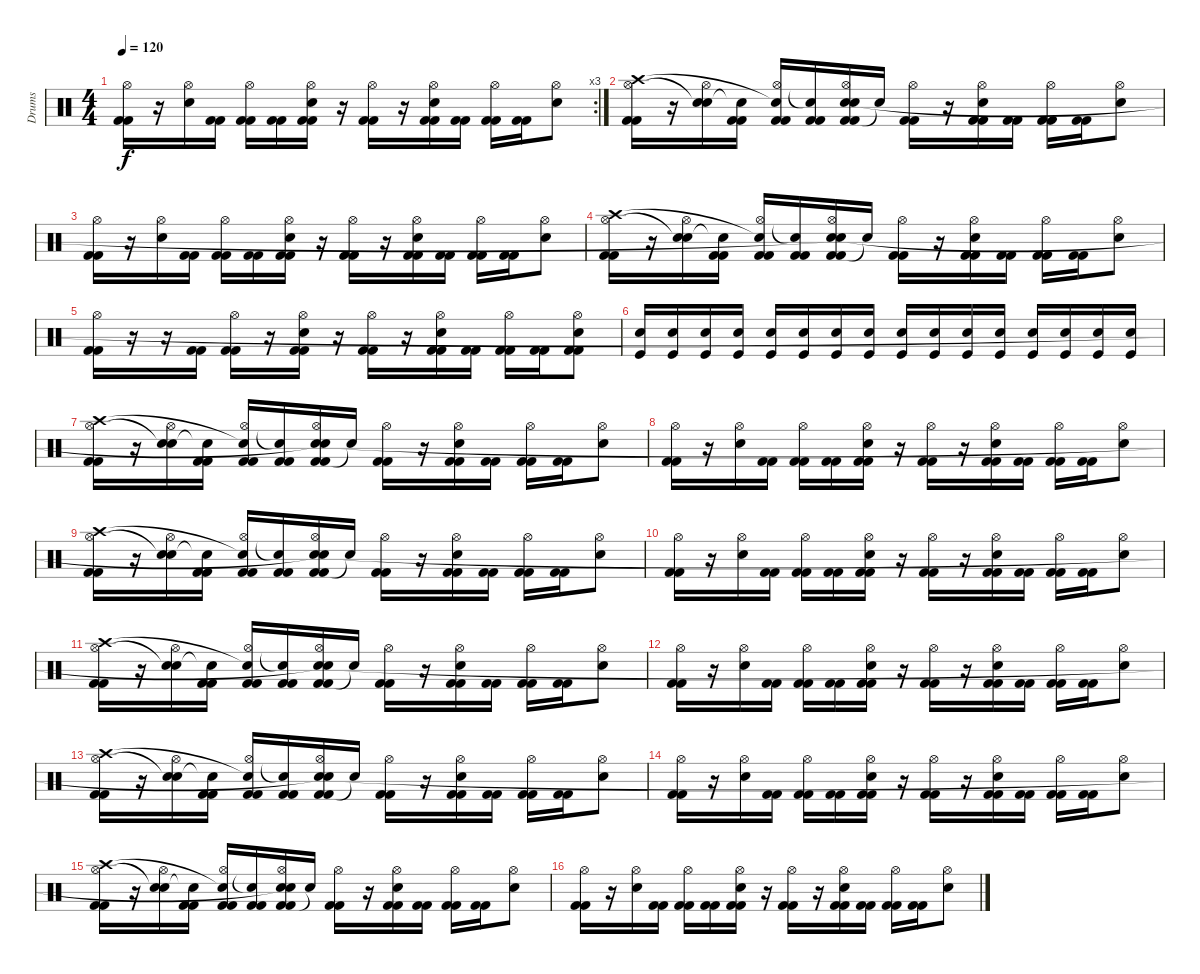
\track ("Drums" "Drums") {instrument percussion}
\staff {score}
\articulation defaults
\rc 3
\ts (4 4)
\tempo 120
\clef neutral
\ks c
("Kick (hit) 2" "Kick (hit) 2" "Hi-Hat (open)").16{dy f} r.16 ("Electric Snare (hit)" "Hi-Hat (open)").16 ("Kick (hit) 2" "Kick (hit) 2").16 ("Kick (hit) 2" "Kick (hit) 2" "Hi-Hat (open)").16 ("Kick (hit) 2" "Kick (hit) 2").16 ("Kick (hit) 2" "Kick (hit) 2" "Electric Snare (hit)" "Hi-Hat (open)").16 r.16 ("Kick (hit) 2" "Kick (hit) 2" "Hi-Hat (open)").16 r.16 ("Kick (hit) 2" "Kick (hit) 2" "Electric Snare (hit)" "Hi-Hat (open)").16 ("Kick (hit) 2" "Kick (hit) 2").16 ("Kick (hit) 2" "Kick (hit) 2" "Hi-Hat (open)").16 ("Kick (hit) 2" "Kick (hit) 2").16 ("Electric Snare (hit)" "Hi-Hat (open)").8 |
("Kick (hit) 2" "Kick (hit) 2" "Hi-Hat (open)" "Crash high (hit)").16 r.16 ("Electric Snare (hit)" "Hi-Hat (open)" "Snare (hit)"{t}).16 ("Kick (hit) 2" "Kick (hit) 2" "Snare (hit)"{t}).16 ("Kick (hit) 2" "Kick (hit) 2" "Hi-Hat (open)" "Snare (hit)"{t}).16 ("Kick (hit) 2" "Kick (hit) 2" "Snare (hit)"{t}).16 ("Kick (hit) 2" "Kick (hit) 2" "Electric Snare (hit)" "Hi-Hat (open)" "Snare (hit)"{t}).16 "Snare (hit)"{t}.16 ("Kick (hit) 2" "Kick (hit) 2" "Hi-Hat (open)").16 r.16 ("Kick (hit) 2" "Kick (hit) 2" "Electric Snare (hit)" "Hi-Hat (open)").16 ("Kick (hit) 2" "Kick (hit) 2").16 ("Kick (hit) 2" "Kick (hit) 2" "Hi-Hat (open)").16 ("Kick (hit) 2" "Kick (hit) 2").16 ("Electric Snare (hit)" "Hi-Hat (open)").8 |
("Kick (hit) 2" "Kick (hit) 2" "Hi-Hat (open)").16 r.16 ("Electric Snare (hit)" "Hi-Hat (open)").16 ("Kick (hit) 2" "Kick (hit) 2").16 ("Kick (hit) 2" "Kick (hit) 2" "Hi-Hat (open)").16 ("Kick (hit) 2" "Kick (hit) 2").16 ("Kick (hit) 2" "Kick (hit) 2" "Electric Snare (hit)" "Hi-Hat (open)").16 r.16 ("Kick (hit) 2" "Kick (hit) 2" "Hi-Hat (open)").16 r.16 ("Kick (hit) 2" "Kick (hit) 2" "Electric Snare (hit)" "Hi-Hat (open)").16 ("Kick (hit) 2" "Kick (hit) 2").16 ("Kick (hit) 2" "Kick (hit) 2" "Hi-Hat (open)").16 ("Kick (hit) 2" "Kick (hit) 2").16 ("Electric Snare (hit)" "Hi-Hat (open)").8 |
("Kick (hit) 2" "Kick (hit) 2" "Hi-Hat (open)" "Crash high (hit)").16 r.16 ("Electric Snare (hit)" "Hi-Hat (open)" "Snare (hit)"{t}).16 ("Kick (hit) 2" "Kick (hit) 2" "Snare (hit)"{t}).16 ("Kick (hit) 2" "Kick (hit) 2" "Hi-Hat (open)" "Snare (hit)"{t}).16 ("Kick (hit) 2" "Kick (hit) 2" "Snare (hit)"{t}).16 ("Kick (hit) 2" "Kick (hit) 2" "Electric Snare (hit)" "Hi-Hat (open)" "Snare (hit)"{t}).16 "Snare (hit)"{t}.16 ("Kick (hit) 2" "Kick (hit) 2" "Hi-Hat (open)").16 r.16 ("Kick (hit) 2" "Kick (hit) 2" "Electric Snare (hit)" "Hi-Hat (open)").16 ("Kick (hit) 2" "Kick (hit) 2").16 ("Kick (hit) 2" "Kick (hit) 2" "Hi-Hat (open)").16 ("Kick (hit) 2" "Kick (hit) 2").16 ("Electric Snare (hit)" "Hi-Hat (open)").8 |
("Kick (hit) 2" "Kick (hit) 2" "Hi-Hat (open)").16 r.16 r.16 ("Kick (hit) 2" "Kick (hit) 2").16 ("Kick (hit) 2" "Kick (hit) 2" "Hi-Hat (open)").16 r.16 ("Kick (hit) 2" "Kick (hit) 2" "Electric Snare (hit)" "Hi-Hat (open)").16 r.16 ("Kick (hit) 2" "Kick (hit) 2" "Hi-Hat (open)").16 r.16 ("Kick (hit) 2" "Kick (hit) 2" "Electric Snare (hit)" "Hi-Hat (open)").16 ("Kick (hit) 2" "Kick (hit) 2").16 ("Kick (hit) 2" "Kick (hit) 2" "Hi-Hat (open)").16 ("Kick (hit) 2" "Kick (hit) 2").16 ("Kick (hit) 2" "Kick (hit) 2" "Electric Snare (hit)" "Hi-Hat (open)").8 |
("Electric Snare (hit)" "Kick (hit)").16 ("Electric Snare (hit)" "Kick (hit)").16 ("Electric Snare (hit)" "Kick (hit)").16 ("Electric Snare (hit)" "Kick (hit)").16 ("Electric Snare (hit)" "Kick (hit)").16 ("Electric Snare (hit)" "Kick (hit)").16 ("Electric Snare (hit)" "Kick (hit)").16 ("Electric Snare (hit)" "Kick (hit)").16 ("Electric Snare (hit)" "Kick (hit)").16 ("Electric Snare (hit)" "Kick (hit)").16 ("Electric Snare (hit)" "Kick (hit)").16 ("Electric Snare (hit)" "Kick (hit)").16 ("Electric Snare (hit)" "Kick (hit)").16 ("Electric Snare (hit)" "Kick (hit)").16 ("Electric Snare (hit)" "Kick (hit)").16 ("Electric Snare (hit)" "Kick (hit)").16 |
("Kick (hit) 2" "Kick (hit) 2" "Hi-Hat (open)" "Crash high (hit)").16 r.16 ("Electric Snare (hit)" "Hi-Hat (open)" "Snare (hit)"{t}).16 ("Kick (hit) 2" "Kick (hit) 2" "Snare (hit)"{t}).16 ("Kick (hit) 2" "Kick (hit) 2" "Hi-Hat (open)" "Snare (hit)"{t}).16 ("Kick (hit) 2" "Kick (hit) 2" "Snare (hit)"{t}).16 ("Kick (hit) 2" "Kick (hit) 2" "Electric Snare (hit)" "Hi-Hat (open)" "Snare (hit)"{t}).16 "Snare (hit)"{t}.16 ("Kick (hit) 2" "Kick (hit) 2" "Hi-Hat (open)").16 r.16 ("Kick (hit) 2" "Kick (hit) 2" "Electric Snare (hit)" "Hi-Hat (open)").16 ("Kick (hit) 2" "Kick (hit) 2").16 ("Kick (hit) 2" "Kick (hit) 2" "Hi-Hat (open)").16 ("Kick (hit) 2" "Kick (hit) 2").16 ("Electric Snare (hit)" "Hi-Hat (open)").8 |
("Kick (hit) 2" "Kick (hit) 2" "Hi-Hat (open)").16 r.16 ("Electric Snare (hit)" "Hi-Hat (open)").16 ("Kick (hit) 2" "Kick (hit) 2").16 ("Kick (hit) 2" "Kick (hit) 2" "Hi-Hat (open)").16 ("Kick (hit) 2" "Kick (hit) 2").16 ("Kick (hit) 2" "Kick (hit) 2" "Electric Snare (hit)" "Hi-Hat (open)").16 r.16 ("Kick (hit) 2" "Kick (hit) 2" "Hi-Hat (open)").16 r.16 ("Kick (hit) 2" "Kick (hit) 2" "Electric Snare (hit)" "Hi-Hat (open)").16 ("Kick (hit) 2" "Kick (hit) 2").16 ("Kick (hit) 2" "Kick (hit) 2" "Hi-Hat (open)").16 ("Kick (hit) 2" "Kick (hit) 2").16 ("Electric Snare (hit)" "Hi-Hat (open)").8 |
("Kick (hit) 2" "Kick (hit) 2" "Hi-Hat (open)" "Crash high (hit)").16 r.16 ("Electric Snare (hit)" "Hi-Hat (open)" "Snare (hit)"{t}).16 ("Kick (hit) 2" "Kick (hit) 2" "Snare (hit)"{t}).16 ("Kick (hit) 2" "Kick (hit) 2" "Hi-Hat (open)" "Snare (hit)"{t}).16 ("Kick (hit) 2" "Kick (hit) 2" "Snare (hit)"{t}).16 ("Kick (hit) 2" "Kick (hit) 2" "Electric Snare (hit)" "Hi-Hat (open)" "Snare (hit)"{t}).16 "Snare (hit)"{t}.16 ("Kick (hit) 2" "Kick (hit) 2" "Hi-Hat (open)").16 r.16 ("Kick (hit) 2" "Kick (hit) 2" "Electric Snare (hit)" "Hi-Hat (open)").16 ("Kick (hit) 2" "Kick (hit) 2").16 ("Kick (hit) 2" "Kick (hit) 2" "Hi-Hat (open)").16 ("Kick (hit) 2" "Kick (hit) 2").16 ("Electric Snare (hit)" "Hi-Hat (open)").8 |
("Kick (hit) 2" "Kick (hit) 2" "Hi-Hat (open)").16 r.16 ("Electric Snare (hit)" "Hi-Hat (open)").16 ("Kick (hit) 2" "Kick (hit) 2").16 ("Kick (hit) 2" "Kick (hit) 2" "Hi-Hat (open)").16 ("Kick (hit) 2" "Kick (hit) 2").16 ("Kick (hit) 2" "Kick (hit) 2" "Electric Snare (hit)" "Hi-Hat (open)").16 r.16 ("Kick (hit) 2" "Kick (hit) 2" "Hi-Hat (open)").16 r.16 ("Kick (hit) 2" "Kick (hit) 2" "Electric Snare (hit)" "Hi-Hat (open)").16 ("Kick (hit) 2" "Kick (hit) 2").16 ("Kick (hit) 2" "Kick (hit) 2" "Hi-Hat (open)").16 ("Kick (hit) 2" "Kick (hit) 2").16 ("Electric Snare (hit)" "Hi-Hat (open)").8 |
("Kick (hit) 2" "Kick (hit) 2" "Hi-Hat (open)" "Crash high (hit)").16 r.16 ("Electric Snare (hit)" "Hi-Hat (open)" "Snare (hit)"{t}).16 ("Kick (hit) 2" "Kick (hit) 2" "Snare (hit)"{t}).16 ("Kick (hit) 2" "Kick (hit) 2" "Hi-Hat (open)" "Snare (hit)"{t}).16 ("Kick (hit) 2" "Kick (hit) 2" "Snare (hit)"{t}).16 ("Kick (hit) 2" "Kick (hit) 2" "Electric Snare (hit)" "Hi-Hat (open)" "Snare (hit)"{t}).16 "Snare (hit)"{t}.16 ("Kick (hit) 2" "Kick (hit) 2" "Hi-Hat (open)").16 r.16 ("Kick (hit) 2" "Kick (hit) 2" "Electric Snare (hit)" "Hi-Hat (open)").16 ("Kick (hit) 2" "Kick (hit) 2").16 ("Kick (hit) 2" "Kick (hit) 2" "Hi-Hat (open)").16 ("Kick (hit) 2" "Kick (hit) 2").16 ("Electric Snare (hit)" "Hi-Hat (open)").8 |
("Kick (hit) 2" "Kick (hit) 2" "Hi-Hat (open)").16 r.16 ("Electric Snare (hit)" "Hi-Hat (open)").16 ("Kick (hit) 2" "Kick (hit) 2").16 ("Kick (hit) 2" "Kick (hit) 2" "Hi-Hat (open)").16 ("Kick (hit) 2" "Kick (hit) 2").16 ("Kick (hit) 2" "Kick (hit) 2" "Electric Snare (hit)" "Hi-Hat (open)").16 r.16 ("Kick (hit) 2" "Kick (hit) 2" "Hi-Hat (open)").16 r.16 ("Kick (hit) 2" "Kick (hit) 2" "Electric Snare (hit)" "Hi-Hat (open)").16 ("Kick (hit) 2" "Kick (hit) 2").16 ("Kick (hit) 2" "Kick (hit) 2" "Hi-Hat (open)").16 ("Kick (hit) 2" "Kick (hit) 2").16 ("Electric Snare (hit)" "Hi-Hat (open)").8 |
("Kick (hit) 2" "Kick (hit) 2" "Hi-Hat (open)" "Crash high (hit)").16 r.16 ("Electric Snare (hit)" "Hi-Hat (open)" "Snare (hit)"{t}).16 ("Kick (hit) 2" "Kick (hit) 2" "Snare (hit)"{t}).16 ("Kick (hit) 2" "Kick (hit) 2" "Hi-Hat (open)" "Snare (hit)"{t}).16 ("Kick (hit) 2" "Kick (hit) 2" "Snare (hit)"{t}).16 ("Kick (hit) 2" "Kick (hit) 2" "Electric Snare (hit)" "Hi-Hat (open)" "Snare (hit)"{t}).16 "Snare (hit)"{t}.16 ("Kick (hit) 2" "Kick (hit) 2" "Hi-Hat (open)").16 r.16 ("Kick (hit) 2" "Kick (hit) 2" "Electric Snare (hit)" "Hi-Hat (open)").16 ("Kick (hit) 2" "Kick (hit) 2").16 ("Kick (hit) 2" "Kick (hit) 2" "Hi-Hat (open)").16 ("Kick (hit) 2" "Kick (hit) 2").16 ("Electric Snare (hit)" "Hi-Hat (open)").8 |
("Kick (hit) 2" "Kick (hit) 2" "Hi-Hat (open)").16 r.16 ("Electric Snare (hit)" "Hi-Hat (open)").16 ("Kick (hit) 2" "Kick (hit) 2").16 ("Kick (hit) 2" "Kick (hit) 2" "Hi-Hat (open)").16 ("Kick (hit) 2" "Kick (hit) 2").16 ("Kick (hit) 2" "Kick (hit) 2" "Electric Snare (hit)" "Hi-Hat (open)").16 r.16 ("Kick (hit) 2" "Kick (hit) 2" "Hi-Hat (open)").16 r.16 ("Kick (hit) 2" "Kick (hit) 2" "Electric Snare (hit)" "Hi-Hat (open)").16 ("Kick (hit) 2" "Kick (hit) 2").16 ("Kick (hit) 2" "Kick (hit) 2" "Hi-Hat (open)").16 ("Kick (hit) 2" "Kick (hit) 2").16 ("Electric Snare (hit)" "Hi-Hat (open)").8 |
("Kick (hit) 2" "Kick (hit) 2" "Hi-Hat (open)" "Crash high (hit)").16 r.16 ("Electric Snare (hit)" "Hi-Hat (open)" "Snare (hit)"{t}).16 ("Kick (hit) 2" "Kick (hit) 2" "Snare (hit)"{t}).16 ("Kick (hit) 2" "Kick (hit) 2" "Hi-Hat (open)" "Snare (hit)"{t}).16 ("Kick (hit) 2" "Kick (hit) 2" "Snare (hit)"{t}).16 ("Kick (hit) 2" "Kick (hit) 2" "Electric Snare (hit)" "Hi-Hat (open)" "Snare (hit)"{t}).16 "Snare (hit)"{t}.16 ("Kick (hit) 2" "Kick (hit) 2" "Hi-Hat (open)").16 r.16 ("Kick (hit) 2" "Kick (hit) 2" "Electric Snare (hit)" "Hi-Hat (open)").16 ("Kick (hit) 2" "Kick (hit) 2").16 ("Kick (hit) 2" "Kick (hit) 2" "Hi-Hat (open)").16 ("Kick (hit) 2" "Kick (hit) 2").16 ("Electric Snare (hit)" "Hi-Hat (open)").8 |
("Kick (hit) 2" "Kick (hit) 2" "Hi-Hat (open)").16 r.16 ("Electric Snare (hit)" "Hi-Hat (open)").16 ("Kick (hit) 2" "Kick (hit) 2").16 ("Kick (hit) 2" "Kick (hit) 2" "Hi-Hat (open)").16 ("Kick (hit) 2" "Kick (hit) 2").16 ("Kick (hit) 2" "Kick (hit) 2" "Electric Snare (hit)" "Hi-Hat (open)").16 r.16 ("Kick (hit) 2" "Kick (hit) 2" "Hi-Hat (open)").16 r.16 ("Kick (hit) 2" "Kick (hit) 2" "Electric Snare (hit)" "Hi-Hat (open)").16 ("Kick (hit) 2" "Kick (hit) 2").16 ("Kick (hit) 2" "Kick (hit) 2" "Hi-Hat (open)").16 ("Kick (hit) 2" "Kick (hit) 2").16 ("Electric Snare (hit)" "Hi-Hat (open)").8
